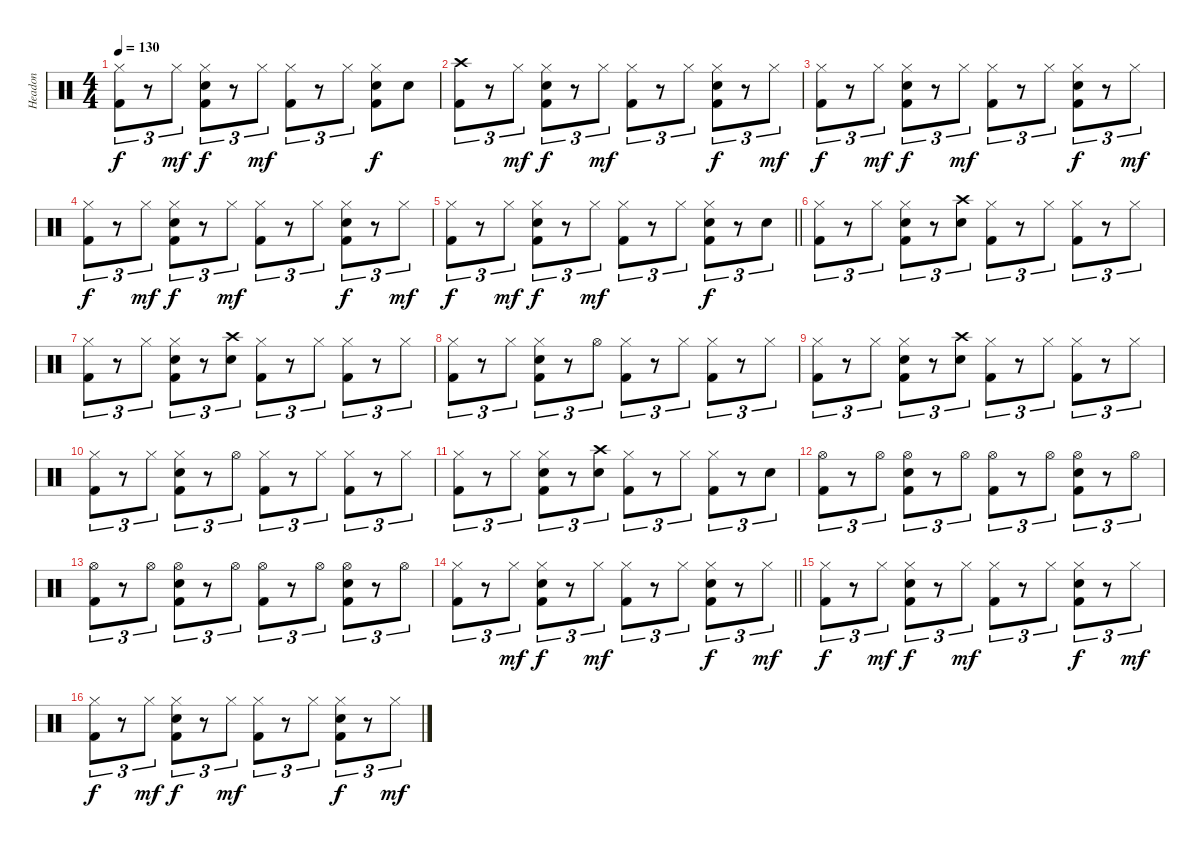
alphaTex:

\track ("Headon" "Headon") {instrument percussion}
\staff {score}
\articulation defaults
\ts (4 4)
\tempo 130
\clef neutral
\ks c
("Hi-Hat (closed)" "Kick (hit) 2").8{tu (3 2) dy f} r.8{tu (3 2)} "Hi-Hat (closed)".8{tu (3 2) dy mf} ("Hi-Hat (closed)" "Snare (hit) 2" "Kick (hit) 2").8{tu (3 2) dy f} r.8{tu (3 2)} "Hi-Hat (closed)".8{tu (3 2) dy mf} ("Hi-Hat (closed)" "Kick (hit) 2").8{tu (3 2)} r.8{tu (3 2)} "Hi-Hat (closed)".8{tu (3 2)} ("Hi-Hat (closed)" "Snare (hit) 2" "Kick (hit) 2").8{dy f} "Snare (hit) 2".8 |
("Crash high (hit)" "Kick (hit) 2").8{tu (3 2)} r.8{tu (3 2)} "Hi-Hat (closed)".8{tu (3 2) dy mf} ("Hi-Hat (closed)" "Snare (hit) 2" "Kick (hit) 2").8{tu (3 2) dy f} r.8{tu (3 2)} "Hi-Hat (closed)".8{tu (3 2) dy mf} ("Hi-Hat (closed)" "Kick (hit) 2").8{tu (3 2)} r.8{tu (3 2)} "Hi-Hat (closed)".8{tu (3 2)} ("Hi-Hat (closed)" "Snare (hit) 2" "Kick (hit) 2").8{tu (3 2) dy f} r.8{tu (3 2)} "Hi-Hat (closed)".8{tu (3 2) dy mf} |
("Hi-Hat (closed)" "Kick (hit) 2").8{tu (3 2) dy f} r.8{tu (3 2)} "Hi-Hat (closed)".8{tu (3 2) dy mf} ("Hi-Hat (closed)" "Snare (hit) 2" "Kick (hit) 2").8{tu (3 2) dy f} r.8{tu (3 2)} "Hi-Hat (closed)".8{tu (3 2) dy mf} ("Hi-Hat (closed)" "Kick (hit) 2").8{tu (3 2)} r.8{tu (3 2)} "Hi-Hat (closed)".8{tu (3 2)} ("Hi-Hat (closed)" "Snare (hit) 2" "Kick (hit) 2").8{tu (3 2) dy f} r.8{tu (3 2)} "Hi-Hat (closed)".8{tu (3 2) dy mf} |
("Hi-Hat (closed)" "Kick (hit) 2").8{tu (3 2) dy f} r.8{tu (3 2)} "Hi-Hat (closed)".8{tu (3 2) dy mf} ("Hi-Hat (closed)" "Snare (hit) 2" "Kick (hit) 2").8{tu (3 2) dy f} r.8{tu (3 2)} "Hi-Hat (closed)".8{tu (3 2) dy mf} ("Hi-Hat (closed)" "Kick (hit) 2").8{tu (3 2)} r.8{tu (3 2)} "Hi-Hat (closed)".8{tu (3 2)} ("Hi-Hat (closed)" "Snare (hit) 2" "Kick (hit) 2").8{tu (3 2) dy f} r.8{tu (3 2)} "Hi-Hat (closed)".8{tu (3 2) dy mf} |
\barLineRight lightlight
("Hi-Hat (closed)" "Kick (hit) 2").8{tu (3 2) dy f} r.8{tu (3 2)} "Hi-Hat (closed)".8{tu (3 2) dy mf} ("Hi-Hat (closed)" "Snare (hit) 2" "Kick (hit) 2").8{tu (3 2) dy f} r.8{tu (3 2)} "Hi-Hat (closed)".8{tu (3 2) dy mf} ("Hi-Hat (closed)" "Kick (hit) 2").8{tu (3 2)} r.8{tu (3 2)} "Hi-Hat (closed)".8{tu (3 2)} ("Hi-Hat (closed)" "Snare (hit) 2" "Kick (hit) 2").8{tu (3 2) dy f} r.8{tu (3 2)} "Snare (hit) 2".8{tu (3 2)} |
("Hi-Hat (closed)" "Kick (hit) 2").8{tu (3 2)} r.8{tu (3 2)} "Hi-Hat (closed)".8{tu (3 2)} ("Hi-Hat (closed)" "Snare (hit) 2" "Kick (hit) 2").8{tu (3 2)} r.8{tu (3 2)} ("Crash high (hit)" "Snare (hit) 2").8{tu (3 2)} ("Hi-Hat (closed)" "Kick (hit) 2").8{tu (3 2)} r.8{tu (3 2)} "Hi-Hat (closed)".8{tu (3 2)} ("Hi-Hat (closed)" "Kick (hit) 2").8{tu (3 2)} r.8{tu (3 2)} "Hi-Hat (closed)".8{tu (3 2)} |
("Hi-Hat (closed)" "Kick (hit) 2").8{tu (3 2)} r.8{tu (3 2)} "Hi-Hat (closed)".8{tu (3 2)} ("Hi-Hat (closed)" "Snare (hit) 2" "Kick (hit) 2").8{tu (3 2)} r.8{tu (3 2)} ("Crash high (hit)" "Snare (hit) 2").8{tu (3 2)} ("Hi-Hat (closed)" "Kick (hit) 2").8{tu (3 2)} r.8{tu (3 2)} "Hi-Hat (closed)".8{tu (3 2)} ("Hi-Hat (closed)" "Kick (hit) 2").8{tu (3 2)} r.8{tu (3 2)} "Hi-Hat (closed)".8{tu (3 2)} |
("Hi-Hat (closed)" "Kick (hit) 2").8{tu (3 2)} r.8{tu (3 2)} "Hi-Hat (closed)".8{tu (3 2)} ("Hi-Hat (closed)" "Snare (hit) 2" "Kick (hit) 2").8{tu (3 2)} r.8{tu (3 2)} "Hi-Hat (open)".8{tu (3 2)} ("Hi-Hat (closed)" "Kick (hit) 2").8{tu (3 2)} r.8{tu (3 2)} "Hi-Hat (closed)".8{tu (3 2)} ("Hi-Hat (closed)" "Kick (hit) 2").8{tu (3 2)} r.8{tu (3 2)} "Hi-Hat (closed)".8{tu (3 2)} |
("Hi-Hat (closed)" "Kick (hit) 2").8{tu (3 2)} r.8{tu (3 2)} "Hi-Hat (closed)".8{tu (3 2)} ("Hi-Hat (closed)" "Snare (hit) 2" "Kick (hit) 2").8{tu (3 2)} r.8{tu (3 2)} ("Crash high (hit)" "Snare (hit) 2").8{tu (3 2)} ("Hi-Hat (closed)" "Kick (hit) 2").8{tu (3 2)} r.8{tu (3 2)} "Hi-Hat (closed)".8{tu (3 2)} ("Hi-Hat (closed)" "Kick (hit) 2").8{tu (3 2)} r.8{tu (3 2)} "Hi-Hat (closed)".8{tu (3 2)} |
("Hi-Hat (closed)" "Kick (hit) 2").8{tu (3 2)} r.8{tu (3 2)} "Hi-Hat (closed)".8{tu (3 2)} ("Hi-Hat (closed)" "Snare (hit) 2" "Kick (hit) 2").8{tu (3 2)} r.8{tu (3 2)} "Hi-Hat (open)".8{tu (3 2)} ("Hi-Hat (closed)" "Kick (hit) 2").8{tu (3 2)} r.8{tu (3 2)} "Hi-Hat (closed)".8{tu (3 2)} ("Hi-Hat (closed)" "Kick (hit) 2").8{tu (3 2)} r.8{tu (3 2)} "Hi-Hat (closed)".8{tu (3 2)} |
("Hi-Hat (closed)" "Kick (hit) 2").8{tu (3 2)} r.8{tu (3 2)} "Hi-Hat (closed)".8{tu (3 2)} ("Hi-Hat (closed)" "Snare (hit) 2" "Kick (hit) 2").8{tu (3 2)} r.8{tu (3 2)} ("Crash high (hit)" "Snare (hit) 2").8{tu (3 2)} ("Hi-Hat (closed)" "Kick (hit) 2").8{tu (3 2)} r.8{tu (3 2)} "Hi-Hat (closed)".8{tu (3 2)} ("Hi-Hat (closed)" "Kick (hit) 2").8{tu (3 2)} r.8{tu (3 2)} "Snare (hit) 2".8{tu (3 2)} |
("Hi-Hat (open)" "Kick (hit) 2").8{tu (3 2)} r.8{tu (3 2)} "Hi-Hat (open)".8{tu (3 2)} ("Hi-Hat (open)" "Snare (hit) 2" "Kick (hit) 2").8{tu (3 2)} r.8{tu (3 2)} "Hi-Hat (open)".8{tu (3 2)} ("Hi-Hat (open)" "Kick (hit) 2").8{tu (3 2)} r.8{tu (3 2)} "Hi-Hat (open)".8{tu (3 2)} ("Hi-Hat (open)" "Snare (hit) 2" "Kick (hit) 2").8{tu (3 2)} r.8{tu (3 2)} "Hi-Hat (open)".8{tu (3 2)} |
("Hi-Hat (open)" "Kick (hit) 2").8{tu (3 2)} r.8{tu (3 2)} "Hi-Hat (open)".8{tu (3 2)} ("Hi-Hat (open)" "Snare (hit) 2" "Kick (hit) 2").8{tu (3 2)} r.8{tu (3 2)} "Hi-Hat (open)".8{tu (3 2)} ("Hi-Hat (open)" "Kick (hit) 2").8{tu (3 2)} r.8{tu (3 2)} "Hi-Hat (open)".8{tu (3 2)} ("Hi-Hat (open)" "Snare (hit) 2" "Kick (hit) 2").8{tu (3 2)} r.8{tu (3 2)} "Hi-Hat (open)".8{tu (3 2)} |
\barLineRight lightlight
("Hi-Hat (closed)" "Kick (hit) 2").8{tu (3 2)} r.8{tu (3 2)} "Hi-Hat (closed)".8{tu (3 2) dy mf} ("Hi-Hat (closed)" "Snare (hit) 2" "Kick (hit) 2").8{tu (3 2) dy f} r.8{tu (3 2)} "Hi-Hat (closed)".8{tu (3 2) dy mf} ("Hi-Hat (closed)" "Kick (hit) 2").8{tu (3 2)} r.8{tu (3 2)} "Hi-Hat (closed)".8{tu (3 2)} ("Hi-Hat (closed)" "Snare (hit) 2" "Kick (hit) 2").8{tu (3 2) dy f} r.8{tu (3 2)} "Hi-Hat (closed)".8{tu (3 2) dy mf} |
("Hi-Hat (closed)" "Kick (hit) 2").8{tu (3 2) dy f} r.8{tu (3 2)} "Hi-Hat (closed)".8{tu (3 2) dy mf} ("Hi-Hat (closed)" "Snare (hit) 2" "Kick (hit) 2").8{tu (3 2) dy f} r.8{tu (3 2)} "Hi-Hat (closed)".8{tu (3 2) dy mf} ("Hi-Hat (closed)" "Kick (hit) 2").8{tu (3 2)} r.8{tu (3 2)} "Hi-Hat (closed)".8{tu (3 2)} ("Hi-Hat (closed)" "Snare (hit) 2" "Kick (hit) 2").8{tu (3 2) dy f} r.8{tu (3 2)} "Hi-Hat (closed)".8{tu (3 2) dy mf} |
("Hi-Hat (closed)" "Kick (hit) 2").8{tu (3 2) dy f} r.8{tu (3 2)} "Hi-Hat (closed)".8{tu (3 2) dy mf} ("Hi-Hat (closed)" "Snare (hit) 2" "Kick (hit) 2").8{tu (3 2) dy f} r.8{tu (3 2)} "Hi-Hat (closed)".8{tu (3 2) dy mf} ("Hi-Hat (closed)" "Kick (hit) 2").8{tu (3 2)} r.8{tu (3 2)} "Hi-Hat (closed)".8{tu (3 2)} ("Hi-Hat (closed)" "Snare (hit) 2" "Kick (hit) 2").8{tu (3 2) dy f} r.8{tu (3 2)} "Hi-Hat (closed)".8{tu (3 2) dy mf}
